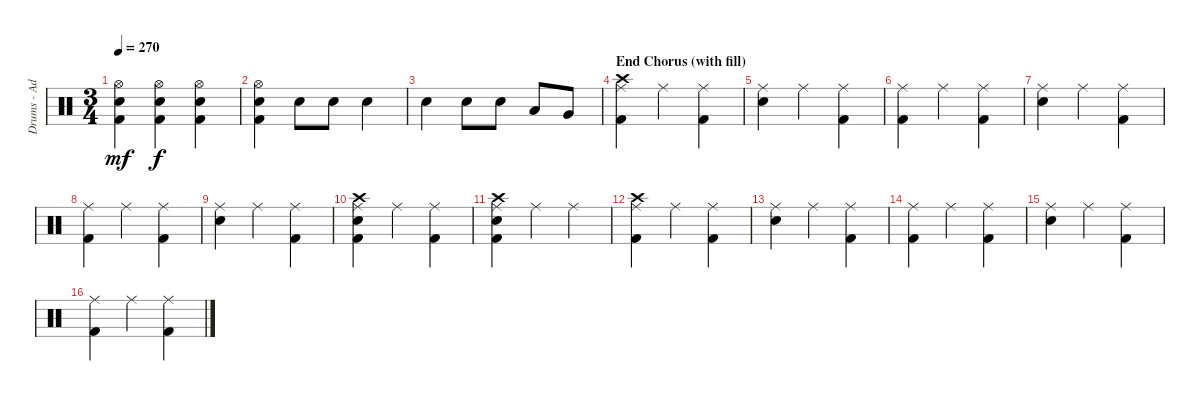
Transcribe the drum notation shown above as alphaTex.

\track ("Drums - Adam" "Drums - Ad") {instrument percussion}
\staff {score}
\articulation defaults
\ts (3 4)
\tempo 270
\clef neutral
\ks c
("Hi-Hat (open)" "Kick (hit) 2" "Electric Snare (hit)").4{dy mf} ("Hi-Hat (open)" "Kick (hit) 2" "Electric Snare (hit)").4{dy f} ("Hi-Hat (open)" "Kick (hit) 2" "Electric Snare (hit)").4 |
("Hi-Hat (open)" "Kick (hit) 2" "Electric Snare (hit)").4 "Electric Snare (hit)".8 "Electric Snare (hit)".8 "Electric Snare (hit)".4 |
"Electric Snare (hit)".4 "Electric Snare (hit)".8 "Electric Snare (hit)".8 "Low Tom (hit)".8 "Very Low Tom (hit)".8 |
\section ("" "End Chorus (with fill)")
("Ride (middle)" "Kick (hit) 2" "Crash high (hit)").4 "Ride (middle)".4 ("Ride (middle)" "Kick (hit) 2").4 |
("Ride (middle)" "Electric Snare (hit)").4 "Ride (middle)".4 ("Ride (middle)" "Kick (hit) 2").4 |
("Ride (middle)" "Kick (hit) 2").4 "Ride (middle)".4 ("Ride (middle)" "Kick (hit) 2").4 |
("Ride (middle)" "Electric Snare (hit)").4 "Ride (middle)".4 ("Ride (middle)" "Kick (hit) 2").4 |
("Ride (middle)" "Kick (hit) 2").4 "Ride (middle)".4 ("Ride (middle)" "Kick (hit) 2").4 |
("Ride (middle)" "Electric Snare (hit)").4 "Ride (middle)".4 ("Ride (middle)" "Kick (hit) 2").4 |
("Ride (middle)" "Kick (hit) 2" "Electric Snare (hit)" "Crash high (hit)").4 "Ride (middle)".4 ("Ride (middle)" "Kick (hit) 2").4 |
("Ride (middle)" "Kick (hit) 2" "Electric Snare (hit)" "Crash high (hit)").4 "Ride (middle)".4 "Ride (middle)".4 |
("Ride (middle)" "Kick (hit) 2" "Crash high (hit)").4 "Ride (middle)".4 ("Ride (middle)" "Kick (hit) 2").4 |
("Ride (middle)" "Electric Snare (hit)").4 "Ride (middle)".4 ("Ride (middle)" "Kick (hit) 2").4 |
("Ride (middle)" "Kick (hit) 2").4 "Ride (middle)".4 ("Ride (middle)" "Kick (hit) 2").4 |
("Ride (middle)" "Electric Snare (hit)").4 "Ride (middle)".4 ("Ride (middle)" "Kick (hit) 2").4 |
("Ride (middle)" "Kick (hit) 2").4 "Ride (middle)".4 ("Ride (middle)" "Kick (hit) 2").4
